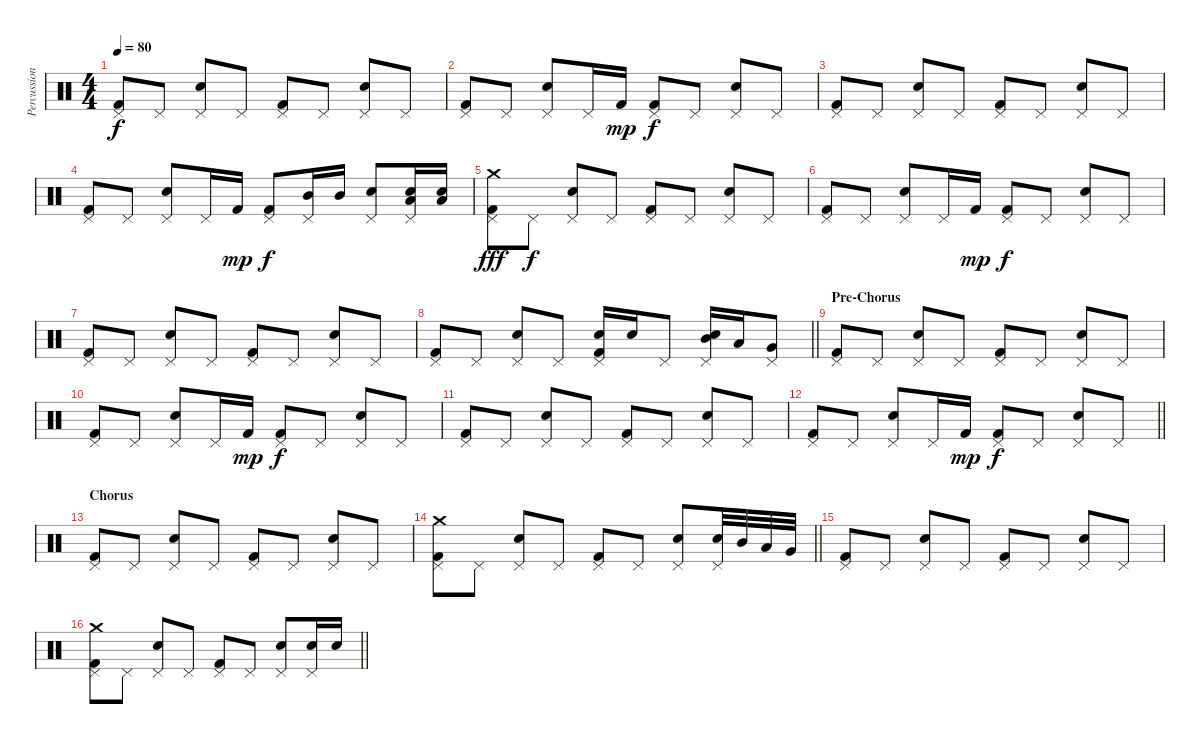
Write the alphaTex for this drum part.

\track ("Percussion" "Percussion") {instrument percussion}
\staff {score}
\articulation defaults
\ts (4 4)
\tempo 80
\clef neutral
\ks c
("Pedal Hi-Hat (hit)" "Kick (hit) 2").8{dy f} "Pedal Hi-Hat (hit)".8 ("Pedal Hi-Hat (hit)" "Electric Snare (hit)").8 "Pedal Hi-Hat (hit)".8 ("Kick (hit) 2" "Pedal Hi-Hat (hit)").8 "Pedal Hi-Hat (hit)".8 ("Electric Snare (hit)" "Pedal Hi-Hat (hit)").8 "Pedal Hi-Hat (hit)".8 |
("Pedal Hi-Hat (hit)" "Kick (hit) 2").8 "Pedal Hi-Hat (hit)".8 ("Pedal Hi-Hat (hit)" "Electric Snare (hit)").8 "Pedal Hi-Hat (hit)".16 "Kick (hit) 2".16{dy mp} ("Kick (hit) 2" "Pedal Hi-Hat (hit)").8{dy f} "Pedal Hi-Hat (hit)".8 ("Electric Snare (hit)" "Pedal Hi-Hat (hit)").8 "Pedal Hi-Hat (hit)".8 |
("Pedal Hi-Hat (hit)" "Kick (hit) 2").8 "Pedal Hi-Hat (hit)".8 ("Pedal Hi-Hat (hit)" "Electric Snare (hit)").8 "Pedal Hi-Hat (hit)".8 ("Kick (hit) 2" "Pedal Hi-Hat (hit)").8 "Pedal Hi-Hat (hit)".8 ("Electric Snare (hit)" "Pedal Hi-Hat (hit)").8 "Pedal Hi-Hat (hit)".8 |
("Pedal Hi-Hat (hit)" "Kick (hit) 2").8 "Pedal Hi-Hat (hit)".8 ("Pedal Hi-Hat (hit)" "Electric Snare (hit)").8 "Pedal Hi-Hat (hit)".16 "Kick (hit) 2".16{dy mp} ("Pedal Hi-Hat (hit)" "Kick (hit) 2").8{dy f} ("Pedal Hi-Hat (hit)" "Mid Tom (hit)").16 "Mid Tom (hit)".16 ("Electric Snare (hit)" "Pedal Hi-Hat (hit)").8 ("Pedal Hi-Hat (hit)" "Electric Snare (hit)" "Low Tom (hit)").16 ("Electric Snare (hit)" "Low Tom (hit)").16 |
("Pedal Hi-Hat (hit)" "Kick (hit) 2" "Crash medium (hit)").8{dy fff} "Pedal Hi-Hat (hit)".8{dy f} ("Pedal Hi-Hat (hit)" "Electric Snare (hit)").8 "Pedal Hi-Hat (hit)".8 ("Kick (hit) 2" "Pedal Hi-Hat (hit)").8 "Pedal Hi-Hat (hit)".8 ("Electric Snare (hit)" "Pedal Hi-Hat (hit)").8 "Pedal Hi-Hat (hit)".8 |
("Pedal Hi-Hat (hit)" "Kick (hit) 2").8 "Pedal Hi-Hat (hit)".8 ("Pedal Hi-Hat (hit)" "Electric Snare (hit)").8 "Pedal Hi-Hat (hit)".16 "Kick (hit) 2".16{dy mp} ("Kick (hit) 2" "Pedal Hi-Hat (hit)").8{dy f} "Pedal Hi-Hat (hit)".8 ("Electric Snare (hit)" "Pedal Hi-Hat (hit)").8 "Pedal Hi-Hat (hit)".8 |
("Pedal Hi-Hat (hit)" "Kick (hit) 2").8 "Pedal Hi-Hat (hit)".8 ("Pedal Hi-Hat (hit)" "Electric Snare (hit)").8 "Pedal Hi-Hat (hit)".8 ("Kick (hit) 2" "Pedal Hi-Hat (hit)").8 "Pedal Hi-Hat (hit)".8 ("Electric Snare (hit)" "Pedal Hi-Hat (hit)").8 "Pedal Hi-Hat (hit)".8 |
\barLineRight lightlight
("Kick (hit) 2" "Pedal Hi-Hat (hit)").8 "Pedal Hi-Hat (hit)".8 ("Electric Snare (hit)" "Pedal Hi-Hat (hit)").8 "Pedal Hi-Hat (hit)".8 ("Kick (hit) 2" "Pedal Hi-Hat (hit)" "Electric Snare (hit)").16 "Electric Snare (hit)".16 "Pedal Hi-Hat (hit)".8 ("Electric Snare (hit)" "Pedal Hi-Hat (hit)" "Mid Tom (hit)").16 "Low Tom (hit)".16 ("Pedal Hi-Hat (hit)" "Very Low Tom (hit)").8 |
\section ("" "Pre-Chorus")
("Pedal Hi-Hat (hit)" "Kick (hit) 2").8 "Pedal Hi-Hat (hit)".8 ("Pedal Hi-Hat (hit)" "Electric Snare (hit)").8 "Pedal Hi-Hat (hit)".8 ("Kick (hit) 2" "Pedal Hi-Hat (hit)").8 "Pedal Hi-Hat (hit)".8 ("Electric Snare (hit)" "Pedal Hi-Hat (hit)").8 "Pedal Hi-Hat (hit)".8 |
("Pedal Hi-Hat (hit)" "Kick (hit) 2").8 "Pedal Hi-Hat (hit)".8 ("Pedal Hi-Hat (hit)" "Electric Snare (hit)").8 "Pedal Hi-Hat (hit)".16 "Kick (hit) 2".16{dy mp} ("Kick (hit) 2" "Pedal Hi-Hat (hit)").8{dy f} "Pedal Hi-Hat (hit)".8 ("Electric Snare (hit)" "Pedal Hi-Hat (hit)").8 "Pedal Hi-Hat (hit)".8 |
("Pedal Hi-Hat (hit)" "Kick (hit) 2").8 "Pedal Hi-Hat (hit)".8 ("Pedal Hi-Hat (hit)" "Electric Snare (hit)").8 "Pedal Hi-Hat (hit)".8 ("Kick (hit) 2" "Pedal Hi-Hat (hit)").8 "Pedal Hi-Hat (hit)".8 ("Electric Snare (hit)" "Pedal Hi-Hat (hit)").8 "Pedal Hi-Hat (hit)".8 |
\barLineRight lightlight
("Pedal Hi-Hat (hit)" "Kick (hit) 2").8 "Pedal Hi-Hat (hit)".8 ("Pedal Hi-Hat (hit)" "Electric Snare (hit)").8 "Pedal Hi-Hat (hit)".16 "Kick (hit) 2".16{dy mp} ("Kick (hit) 2" "Pedal Hi-Hat (hit)").8{dy f} "Pedal Hi-Hat (hit)".8 ("Electric Snare (hit)" "Pedal Hi-Hat (hit)").8 "Pedal Hi-Hat (hit)".8 |
\section ("" "Chorus")
("Kick (hit) 2" "Pedal Hi-Hat (hit)").8 "Pedal Hi-Hat (hit)".8 ("Pedal Hi-Hat (hit)" "Electric Snare (hit)").8 "Pedal Hi-Hat (hit)".8 ("Pedal Hi-Hat (hit)" "Kick (hit) 2").8 "Pedal Hi-Hat (hit)".8 ("Pedal Hi-Hat (hit)" "Electric Snare (hit)").8 "Pedal Hi-Hat (hit)".8 |
\barLineRight lightlight
("Pedal Hi-Hat (hit)" "Kick (hit) 2" "Crash medium (hit)").8 "Pedal Hi-Hat (hit)".8 ("Electric Snare (hit)" "Pedal Hi-Hat (hit)").8 "Pedal Hi-Hat (hit)".8 ("Pedal Hi-Hat (hit)" "Kick (hit) 2").8 "Pedal Hi-Hat (hit)".8 ("Pedal Hi-Hat (hit)" "Electric Snare (hit)").8 ("Pedal Hi-Hat (hit)" "Electric Snare (hit)").32 "Mid Tom (hit)".32 "Low Tom (hit)".32 "Very Low Tom (hit)".32 |
\section ("" "")
("Pedal Hi-Hat (hit)" "Kick (hit) 2").8 "Pedal Hi-Hat (hit)".8 ("Pedal Hi-Hat (hit)" "Electric Snare (hit)").8 "Pedal Hi-Hat (hit)".8 ("Kick (hit) 2" "Pedal Hi-Hat (hit)").8 "Pedal Hi-Hat (hit)".8 ("Electric Snare (hit)" "Pedal Hi-Hat (hit)").8 "Pedal Hi-Hat (hit)".8 |
\barLineRight lightlight
("Kick (hit) 2" "Pedal Hi-Hat (hit)" "Crash medium (hit)").8 "Pedal Hi-Hat (hit)".8 ("Electric Snare (hit)" "Pedal Hi-Hat (hit)").8 "Pedal Hi-Hat (hit)".8 ("Kick (hit) 2" "Pedal Hi-Hat (hit)").8 "Pedal Hi-Hat (hit)".8 ("Electric Snare (hit)" "Pedal Hi-Hat (hit)").8 ("Electric Snare (hit)" "Pedal Hi-Hat (hit)").16 "Electric Snare (hit)".16
